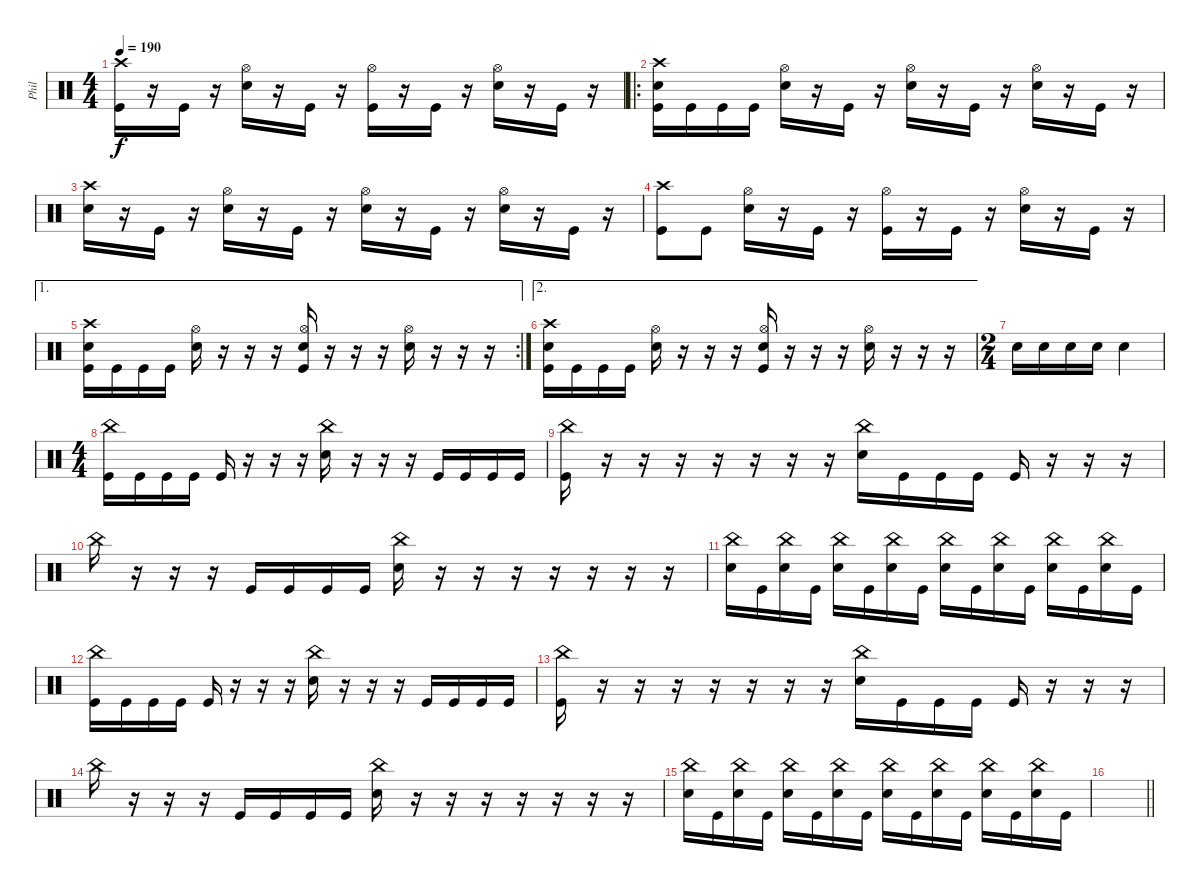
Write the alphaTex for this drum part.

\track ("Phil" "Phil") {instrument percussion}
\staff {score}
\articulation defaults
\ts (4 4)
\tempo 190
\clef neutral
\ks c
("Crash high (hit)" "Kick (hit)").16{dy f} r.16 "Kick (hit)".16 r.16 ("Hi-Hat (open)" "Electric Snare (hit)").16 r.16 "Kick (hit)".16 r.16 ("Hi-Hat (open)" "Kick (hit)").16 r.16 "Kick (hit)".16 r.16 ("Hi-Hat (open)" "Electric Snare (hit)").16 r.16 "Kick (hit)".16 r.16 |
\ro
("Crash high (hit)" "Electric Snare (hit)" "Kick (hit)").16 "Kick (hit)".16 "Kick (hit)".16 "Kick (hit)".16 ("Hi-Hat (open)" "Electric Snare (hit)").16 r.16 "Kick (hit)".16 r.16 ("Hi-Hat (open)" "Electric Snare (hit)").16 r.16 "Kick (hit)".16 r.16 ("Hi-Hat (open)" "Electric Snare (hit)").16 r.16 "Kick (hit)".16 r.16 |
("Crash high (hit)" "Electric Snare (hit)").16 r.16 "Kick (hit)".16 r.16 ("Hi-Hat (open)" "Electric Snare (hit)").16 r.16 "Kick (hit)".16 r.16 ("Hi-Hat (open)" "Electric Snare (hit)").16 r.16 "Kick (hit)".16 r.16 ("Hi-Hat (open)" "Electric Snare (hit)").16 r.16 "Kick (hit)".16 r.16 |
("Crash high (hit)" "Kick (hit)").8 "Kick (hit)".8 ("Hi-Hat (open)" "Electric Snare (hit)").16 r.16 "Kick (hit)".16 r.16 ("Hi-Hat (open)" "Kick (hit)").16 r.16 "Kick (hit)".16 r.16 ("Hi-Hat (open)" "Electric Snare (hit)").16 r.16 "Kick (hit)".16 r.16 |
\ae 1
\rc 2
("Crash high (hit)" "Electric Snare (hit)" "Kick (hit)").16 "Kick (hit)".16 "Kick (hit)".16 "Kick (hit)".16 ("Hi-Hat (open)" "Electric Snare (hit)").16 r.16 r.16 r.16 ("Hi-Hat (open)" "Electric Snare (hit)" "Kick (hit)").16 r.16 r.16 r.16 ("Hi-Hat (open)" "Electric Snare (hit)").16 r.16 r.16 r.16 |
\ae 2
("Crash high (hit)" "Electric Snare (hit)" "Kick (hit)").16 "Kick (hit)".16 "Kick (hit)".16 "Kick (hit)".16 ("Hi-Hat (open)" "Electric Snare (hit)").16 r.16 r.16 r.16 ("Hi-Hat (open)" "Electric Snare (hit)" "Kick (hit)").16 r.16 r.16 r.16 ("Hi-Hat (open)" "Electric Snare (hit)").16 r.16 r.16 r.16 |
\ts (2 4)
"Electric Snare (hit)".16 "Electric Snare (hit)".16 "Electric Snare (hit)".16 "Electric Snare (hit)".16 "Electric Snare (hit)".4 |
\ts (4 4)
("China (hit)" "Kick (hit)").16 "Kick (hit)".16 "Kick (hit)".16 "Kick (hit)".16 "Kick (hit)".16 r.16 r.16 r.16 ("China (hit)" "Electric Snare (hit)").16 r.16 r.16 r.16 "Kick (hit)".16 "Kick (hit)".16 "Kick (hit)".16 "Kick (hit)".16 |
("China (hit)" "Kick (hit)").16 r.16 r.16 r.16 r.16 r.16 r.16 r.16 ("China (hit)" "Electric Snare (hit)").16 "Kick (hit)".16 "Kick (hit)".16 "Kick (hit)".16 "Kick (hit)".16 r.16 r.16 r.16 |
"China (hit)".16 r.16 r.16 r.16 "Kick (hit)".16 "Kick (hit)".16 "Kick (hit)".16 "Kick (hit)".16 ("China (hit)" "Electric Snare (hit)").16 r.16 r.16 r.16 r.16 r.16 r.16 r.16 |
("China (hit)" "Electric Snare (hit)").16 "Kick (hit)".16 ("China (hit)" "Electric Snare (hit)").16 "Kick (hit)".16 ("China (hit)" "Electric Snare (hit)").16 "Kick (hit)".16 ("China (hit)" "Electric Snare (hit)").16 "Kick (hit)".16 ("China (hit)" "Electric Snare (hit)").16 "Kick (hit)".16 ("China (hit)" "Electric Snare (hit)").16 "Kick (hit)".16 ("China (hit)" "Electric Snare (hit)").16 "Kick (hit)".16 ("China (hit)" "Electric Snare (hit)").16 "Kick (hit)".16 |
("China (hit)" "Kick (hit)").16 "Kick (hit)".16 "Kick (hit)".16 "Kick (hit)".16 "Kick (hit)".16 r.16 r.16 r.16 ("China (hit)" "Electric Snare (hit)").16 r.16 r.16 r.16 "Kick (hit)".16 "Kick (hit)".16 "Kick (hit)".16 "Kick (hit)".16 |
("China (hit)" "Kick (hit)").16 r.16 r.16 r.16 r.16 r.16 r.16 r.16 ("China (hit)" "Electric Snare (hit)").16 "Kick (hit)".16 "Kick (hit)".16 "Kick (hit)".16 "Kick (hit)".16 r.16 r.16 r.16 |
"China (hit)".16 r.16 r.16 r.16 "Kick (hit)".16 "Kick (hit)".16 "Kick (hit)".16 "Kick (hit)".16 ("China (hit)" "Electric Snare (hit)").16 r.16 r.16 r.16 r.16 r.16 r.16 r.16 |
("China (hit)" "Electric Snare (hit)").16 "Kick (hit)".16 ("China (hit)" "Electric Snare (hit)").16 "Kick (hit)".16 ("China (hit)" "Electric Snare (hit)").16 "Kick (hit)".16 ("China (hit)" "Electric Snare (hit)").16 "Kick (hit)".16 ("China (hit)" "Electric Snare (hit)").16 "Kick (hit)".16 ("China (hit)" "Electric Snare (hit)").16 "Kick (hit)".16 ("China (hit)" "Electric Snare (hit)").16 "Kick (hit)".16 ("China (hit)" "Electric Snare (hit)").16 "Kick (hit)".16 |
\barLineRight lightlight
